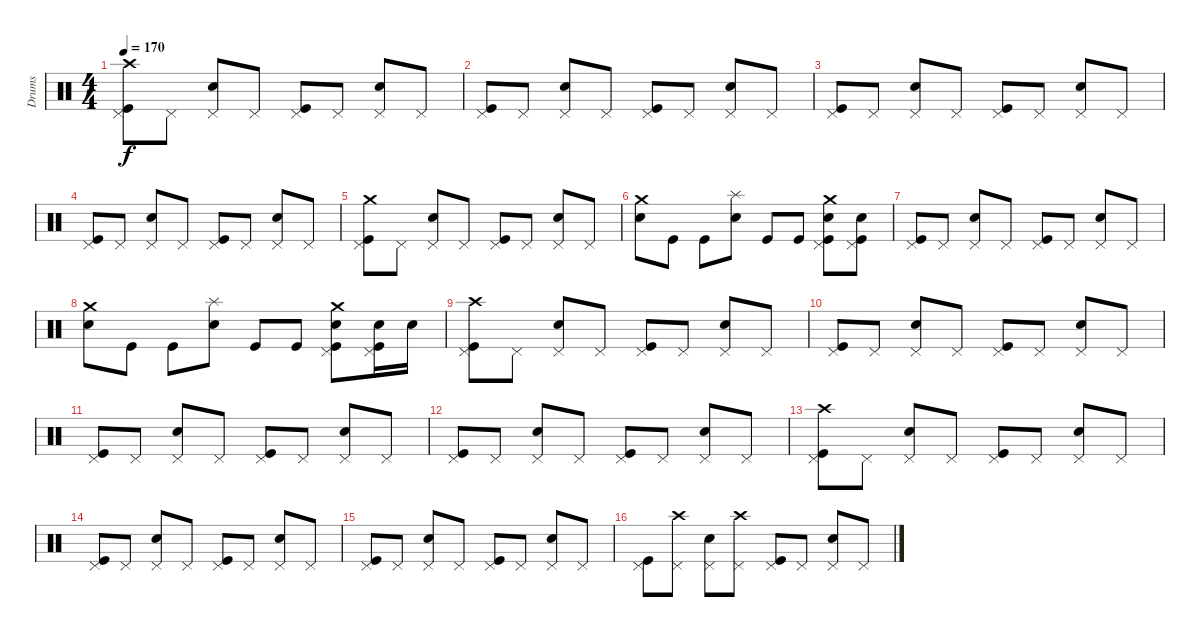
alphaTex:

\track ("Drums" "Drums") {instrument percussion}
\staff {score}
\articulation defaults
\ts (4 4)
\tempo 170
\clef neutral
\ks c
("Crash high (hit)" "Pedal Hi-Hat (hit)" "Kick (hit)").8{dy f} "Pedal Hi-Hat (hit)".8 ("Pedal Hi-Hat (hit)" "Electric Snare (hit)").8 "Pedal Hi-Hat (hit)".8 ("Pedal Hi-Hat (hit)" "Kick (hit)").8 "Pedal Hi-Hat (hit)".8 ("Pedal Hi-Hat (hit)" "Electric Snare (hit)").8 "Pedal Hi-Hat (hit)".8 |
("Pedal Hi-Hat (hit)" "Kick (hit)").8 "Pedal Hi-Hat (hit)".8 ("Pedal Hi-Hat (hit)" "Electric Snare (hit)").8 "Pedal Hi-Hat (hit)".8 ("Pedal Hi-Hat (hit)" "Kick (hit)").8 "Pedal Hi-Hat (hit)".8 ("Pedal Hi-Hat (hit)" "Electric Snare (hit)").8 "Pedal Hi-Hat (hit)".8 |
("Pedal Hi-Hat (hit)" "Kick (hit)").8 "Pedal Hi-Hat (hit)".8 ("Pedal Hi-Hat (hit)" "Electric Snare (hit)").8 "Pedal Hi-Hat (hit)".8 ("Pedal Hi-Hat (hit)" "Kick (hit)").8 "Pedal Hi-Hat (hit)".8 ("Pedal Hi-Hat (hit)" "Electric Snare (hit)").8 "Pedal Hi-Hat (hit)".8 |
("Pedal Hi-Hat (hit)" "Kick (hit)").8 "Pedal Hi-Hat (hit)".8 ("Pedal Hi-Hat (hit)" "Electric Snare (hit)").8 "Pedal Hi-Hat (hit)".8 ("Pedal Hi-Hat (hit)" "Kick (hit)").8 "Pedal Hi-Hat (hit)".8 ("Pedal Hi-Hat (hit)" "Electric Snare (hit)").8 "Pedal Hi-Hat (hit)".8 |
("Crash medium (hit)" "Pedal Hi-Hat (hit)" "Kick (hit)").8 "Pedal Hi-Hat (hit)".8 ("Pedal Hi-Hat (hit)" "Electric Snare (hit)").8 "Pedal Hi-Hat (hit)".8 ("Pedal Hi-Hat (hit)" "Kick (hit)").8 "Pedal Hi-Hat (hit)".8 ("Pedal Hi-Hat (hit)" "Electric Snare (hit)").8 "Pedal Hi-Hat (hit)".8 |
("Crash medium (hit)" "Electric Snare (hit)").8 "Kick (hit)".8 "Kick (hit)".8 ("Splash (hit)" "Electric Snare (hit)").8 "Kick (hit)".8 "Kick (hit)".8 ("Crash medium (hit)" "Pedal Hi-Hat (hit)" "Kick (hit)" "Electric Snare (hit)").8 ("Pedal Hi-Hat (hit)" "Kick (hit)" "Electric Snare (hit)").8 |
("Pedal Hi-Hat (hit)" "Kick (hit)").8 "Pedal Hi-Hat (hit)".8 ("Pedal Hi-Hat (hit)" "Electric Snare (hit)").8 "Pedal Hi-Hat (hit)".8 ("Pedal Hi-Hat (hit)" "Kick (hit)").8 "Pedal Hi-Hat (hit)".8 ("Pedal Hi-Hat (hit)" "Electric Snare (hit)").8 "Pedal Hi-Hat (hit)".8 |
("Crash medium (hit)" "Electric Snare (hit)").8 "Kick (hit)".8 "Kick (hit)".8 ("Splash (hit)" "Electric Snare (hit)").8 "Kick (hit)".8 "Kick (hit)".8 ("Crash medium (hit)" "Pedal Hi-Hat (hit)" "Kick (hit)" "Electric Snare (hit)").8 ("Pedal Hi-Hat (hit)" "Kick (hit)" "Electric Snare (hit)").16 "Electric Snare (hit)".16 |
("Crash high (hit)" "Pedal Hi-Hat (hit)" "Kick (hit)").8 "Pedal Hi-Hat (hit)".8 ("Pedal Hi-Hat (hit)" "Electric Snare (hit)").8 "Pedal Hi-Hat (hit)".8 ("Pedal Hi-Hat (hit)" "Kick (hit)").8 "Pedal Hi-Hat (hit)".8 ("Pedal Hi-Hat (hit)" "Electric Snare (hit)").8 "Pedal Hi-Hat (hit)".8 |
("Pedal Hi-Hat (hit)" "Kick (hit)").8 "Pedal Hi-Hat (hit)".8 ("Pedal Hi-Hat (hit)" "Electric Snare (hit)").8 "Pedal Hi-Hat (hit)".8 ("Pedal Hi-Hat (hit)" "Kick (hit)").8 "Pedal Hi-Hat (hit)".8 ("Pedal Hi-Hat (hit)" "Electric Snare (hit)").8 "Pedal Hi-Hat (hit)".8 |
("Pedal Hi-Hat (hit)" "Kick (hit)").8 "Pedal Hi-Hat (hit)".8 ("Pedal Hi-Hat (hit)" "Electric Snare (hit)").8 "Pedal Hi-Hat (hit)".8 ("Pedal Hi-Hat (hit)" "Kick (hit)").8 "Pedal Hi-Hat (hit)".8 ("Pedal Hi-Hat (hit)" "Electric Snare (hit)").8 "Pedal Hi-Hat (hit)".8 |
("Pedal Hi-Hat (hit)" "Kick (hit)").8 "Pedal Hi-Hat (hit)".8 ("Pedal Hi-Hat (hit)" "Electric Snare (hit)").8 "Pedal Hi-Hat (hit)".8 ("Pedal Hi-Hat (hit)" "Kick (hit)").8 "Pedal Hi-Hat (hit)".8 ("Pedal Hi-Hat (hit)" "Electric Snare (hit)").8 "Pedal Hi-Hat (hit)".8 |
("Crash high (hit)" "Pedal Hi-Hat (hit)" "Kick (hit)").8 "Pedal Hi-Hat (hit)".8 ("Pedal Hi-Hat (hit)" "Electric Snare (hit)").8 "Pedal Hi-Hat (hit)".8 ("Pedal Hi-Hat (hit)" "Kick (hit)").8 "Pedal Hi-Hat (hit)".8 ("Pedal Hi-Hat (hit)" "Electric Snare (hit)").8 "Pedal Hi-Hat (hit)".8 |
("Pedal Hi-Hat (hit)" "Kick (hit)").8 "Pedal Hi-Hat (hit)".8 ("Pedal Hi-Hat (hit)" "Electric Snare (hit)").8 "Pedal Hi-Hat (hit)".8 ("Pedal Hi-Hat (hit)" "Kick (hit)").8 "Pedal Hi-Hat (hit)".8 ("Pedal Hi-Hat (hit)" "Electric Snare (hit)").8 "Pedal Hi-Hat (hit)".8 |
("Pedal Hi-Hat (hit)" "Kick (hit)").8 "Pedal Hi-Hat (hit)".8 ("Pedal Hi-Hat (hit)" "Electric Snare (hit)").8 "Pedal Hi-Hat (hit)".8 ("Pedal Hi-Hat (hit)" "Kick (hit)").8 "Pedal Hi-Hat (hit)".8 ("Pedal Hi-Hat (hit)" "Electric Snare (hit)").8 "Pedal Hi-Hat (hit)".8 |
("Pedal Hi-Hat (hit)" "Kick (hit)").8 ("Crash high (hit)" "Pedal Hi-Hat (hit)").8 ("Pedal Hi-Hat (hit)" "Electric Snare (hit)").8 ("Crash high (hit)" "Pedal Hi-Hat (hit)").8 ("Pedal Hi-Hat (hit)" "Kick (hit)").8 "Pedal Hi-Hat (hit)".8 ("Pedal Hi-Hat (hit)" "Electric Snare (hit)").8 "Pedal Hi-Hat (hit)".8
